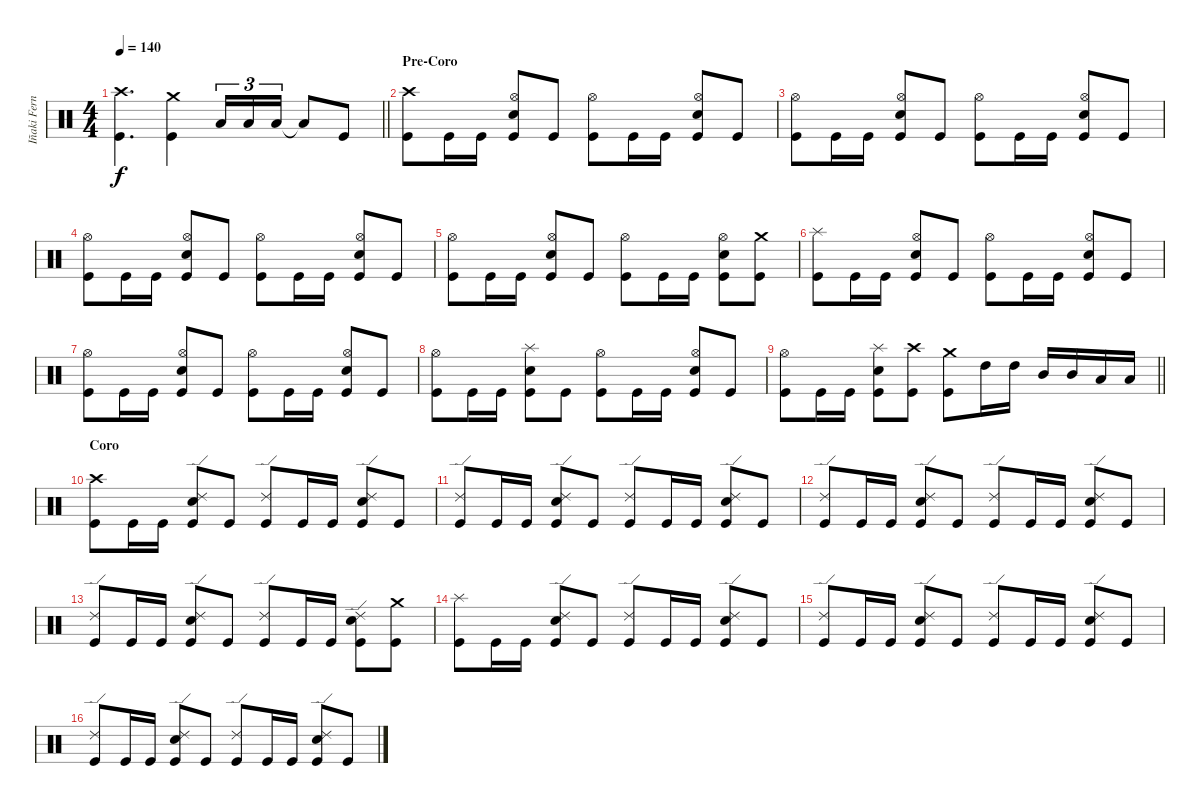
\track ("Iñaki Fernández" "Iñaki Fern") {instrument percussion}
\staff {score}
\articulation defaults
\ts (4 4)
\tempo 140
\clef neutral
\barLineRight lightlight
\ks c
("Crash high (hit)"{t} "Kick (hit)"{t}).4{d dy f} ("Crash medium (hit)" "Kick (hit)").4 "Low Floor Tom (hit)".16{tu (3 2)} "Low Floor Tom (hit)".16{tu (3 2)} "Low Floor Tom (hit)".16{tu (3 2)} "Low Floor Tom (hit)"{t}.8 "Kick (hit)".8 |
\section ("" "Pre-Coro")
("Crash high (hit)" "Kick (hit)").8 "Kick (hit)".16 "Kick (hit)".16 ("Hi-Hat (open)" "Snare (hit) 2" "Kick (hit)").8 "Kick (hit)".8 ("Hi-Hat (open)" "Kick (hit)").8 "Kick (hit)".16 "Kick (hit)".16 ("Hi-Hat (open)" "Snare (hit) 2" "Kick (hit)").8 "Kick (hit)".8 |
("Hi-Hat (open)" "Kick (hit)").8 "Kick (hit)".16 "Kick (hit)".16 ("Hi-Hat (open)" "Snare (hit) 2" "Kick (hit)").8 "Kick (hit)".8 ("Hi-Hat (open)" "Kick (hit)").8 "Kick (hit)".16 "Kick (hit)".16 ("Hi-Hat (open)" "Snare (hit) 2" "Kick (hit)").8 "Kick (hit)".8 |
("Hi-Hat (open)" "Kick (hit)").8 "Kick (hit)".16 "Kick (hit)".16 ("Hi-Hat (open)" "Snare (hit) 2" "Kick (hit)").8 "Kick (hit)".8 ("Hi-Hat (open)" "Kick (hit)").8 "Kick (hit)".16 "Kick (hit)".16 ("Hi-Hat (open)" "Snare (hit) 2" "Kick (hit)").8 "Kick (hit)".8 |
("Hi-Hat (open)" "Kick (hit)").8 "Kick (hit)".16 "Kick (hit)".16 ("Hi-Hat (open)" "Snare (hit) 2" "Kick (hit)").8 "Kick (hit)".8 ("Hi-Hat (open)" "Kick (hit)").8 "Kick (hit)".16 "Kick (hit)".16 ("Hi-Hat (open)" "Snare (hit) 2" "Kick (hit)").8 ("Crash medium (hit)" "Kick (hit)").8 |
("Splash (hit)" "Kick (hit)").8 "Kick (hit)".16 "Kick (hit)".16 ("Hi-Hat (open)" "Snare (hit) 2" "Kick (hit)").8 "Kick (hit)".8 ("Hi-Hat (open)" "Kick (hit)").8 "Kick (hit)".16 "Kick (hit)".16 ("Hi-Hat (open)" "Snare (hit) 2" "Kick (hit)").8 "Kick (hit)".8 |
("Hi-Hat (open)" "Kick (hit)").8 "Kick (hit)".16 "Kick (hit)".16 ("Hi-Hat (open)" "Snare (hit) 2" "Kick (hit)").8 "Kick (hit)".8 ("Hi-Hat (open)" "Kick (hit)").8 "Kick (hit)".16 "Kick (hit)".16 ("Hi-Hat (open)" "Snare (hit) 2" "Kick (hit)").8 "Kick (hit)".8 |
("Hi-Hat (open)" "Kick (hit)").8 "Kick (hit)".16 "Kick (hit)".16 ("Snare (hit) 2" "Splash (hit)" "Kick (hit)").8 "Kick (hit)".8 ("Hi-Hat (open)" "Kick (hit)").8 "Kick (hit)".16 "Kick (hit)".16 ("Hi-Hat (open)" "Snare (hit) 2" "Kick (hit)").8 "Kick (hit)".8 |
\barLineRight lightlight
("Hi-Hat (open)" "Kick (hit)").8 "Kick (hit)".16 "Kick (hit)".16 ("Snare (hit) 2" "Splash (hit)" "Kick (hit)").8 ("Crash high (hit)" "Kick (hit)").8 ("Crash medium (hit)" "Kick (hit)").8 "High Tom (hit)".16 "High Tom (hit)".16 "Mid Tom (hit)".16 "Mid Tom (hit)".16 "Low Tom (hit)".16 "Low Tom (hit)".16 |
\section ("" "Coro")
("Crash high (hit)" "Kick (hit)").8 "Kick (hit)".16 "Kick (hit)".16 ("Ride (edge) 2" "Snare (hit) 2" "Kick (hit)").8 "Kick (hit)".8 ("Ride (edge) 2" "Kick (hit)").8 "Kick (hit)".16 "Kick (hit)".16 ("Ride (edge) 2" "Snare (hit) 2" "Kick (hit)").8 "Kick (hit)".8 |
("Ride (edge) 2" "Kick (hit)").8 "Kick (hit)".16 "Kick (hit)".16 ("Ride (edge) 2" "Snare (hit) 2" "Kick (hit)").8 "Kick (hit)".8 ("Ride (edge) 2" "Kick (hit)").8 "Kick (hit)".16 "Kick (hit)".16 ("Ride (edge) 2" "Snare (hit) 2" "Kick (hit)").8 "Kick (hit)".8 |
("Ride (edge) 2" "Kick (hit)").8 "Kick (hit)".16 "Kick (hit)".16 ("Ride (edge) 2" "Snare (hit) 2" "Kick (hit)").8 "Kick (hit)".8 ("Ride (edge) 2" "Kick (hit)").8 "Kick (hit)".16 "Kick (hit)".16 ("Ride (edge) 2" "Snare (hit) 2" "Kick (hit)").8 "Kick (hit)".8 |
("Ride (edge) 2" "Kick (hit)").8 "Kick (hit)".16 "Kick (hit)".16 ("Ride (edge) 2" "Snare (hit) 2" "Kick (hit)").8 "Kick (hit)".8 ("Ride (edge) 2" "Kick (hit)").8 "Kick (hit)".16 "Kick (hit)".16 ("Ride (edge) 2" "Snare (hit) 2" "Kick (hit)").8 ("Crash medium (hit)" "Kick (hit)").8 |
("Splash (hit)" "Kick (hit)").8 "Kick (hit)".16 "Kick (hit)".16 ("Ride (edge) 2" "Snare (hit) 2" "Kick (hit)").8 "Kick (hit)".8 ("Ride (edge) 2" "Kick (hit)").8 "Kick (hit)".16 "Kick (hit)".16 ("Ride (edge) 2" "Snare (hit) 2" "Kick (hit)").8 "Kick (hit)".8 |
("Ride (edge) 2" "Kick (hit)").8 "Kick (hit)".16 "Kick (hit)".16 ("Ride (edge) 2" "Snare (hit) 2" "Kick (hit)").8 "Kick (hit)".8 ("Ride (edge) 2" "Kick (hit)").8 "Kick (hit)".16 "Kick (hit)".16 ("Ride (edge) 2" "Snare (hit) 2" "Kick (hit)").8 "Kick (hit)".8 |
("Ride (edge) 2" "Kick (hit)").8 "Kick (hit)".16 "Kick (hit)".16 ("Ride (edge) 2" "Snare (hit) 2" "Kick (hit)").8 "Kick (hit)".8 ("Ride (edge) 2" "Kick (hit)").8 "Kick (hit)".16 "Kick (hit)".16 ("Ride (edge) 2" "Snare (hit) 2" "Kick (hit)").8 "Kick (hit)".8
